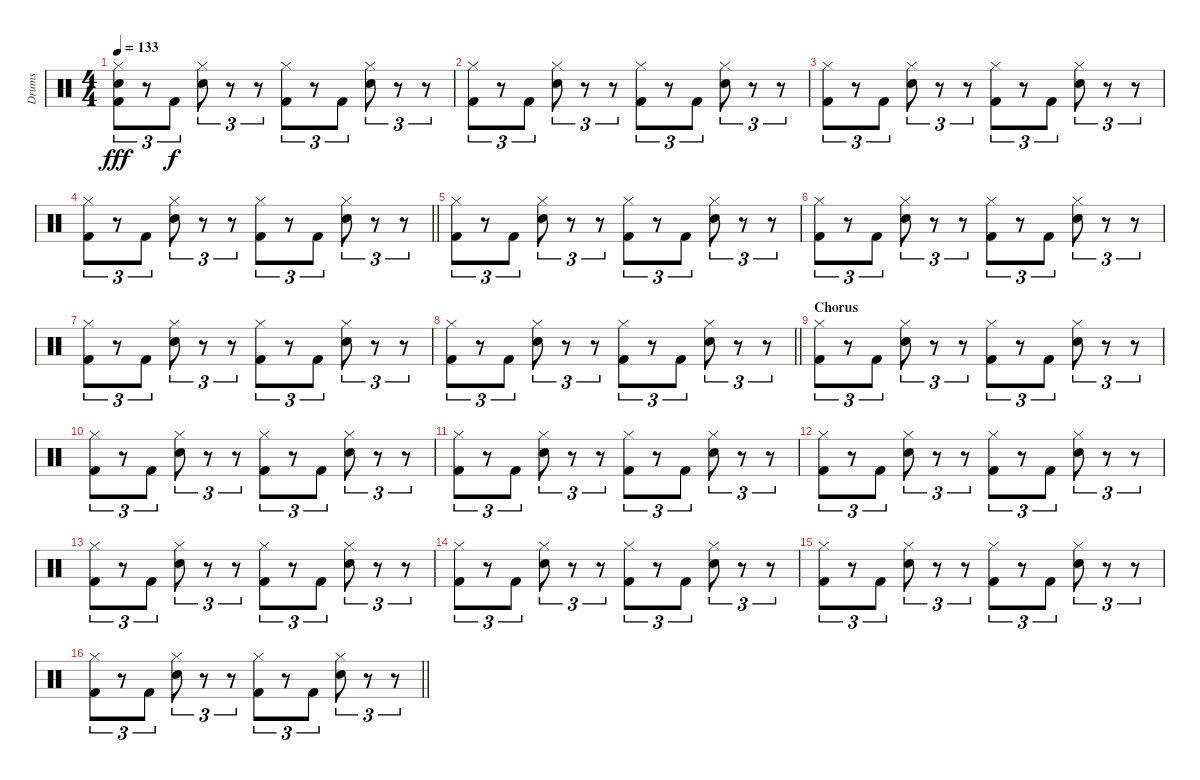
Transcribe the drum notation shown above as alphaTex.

\track ("Drums" "Drums") {instrument percussion}
\staff {score}
\articulation defaults
\ts (4 4)
\tempo 133
\clef neutral
\ks c
("Hi-Hat (closed)" "Hand Clap (hit)" "Kick (hit) 2").8{tu (3 2) dy fff} r.8{tu (3 2)} "Kick (hit) 2".8{tu (3 2) dy f} ("Hi-Hat (closed)" "Snare (hit) 2").8{tu (3 2)} r.8{tu (3 2)} r.8{tu (3 2)} ("Hi-Hat (closed)" "Kick (hit) 2").8{tu (3 2)} r.8{tu (3 2)} "Kick (hit) 2".8{tu (3 2)} ("Hi-Hat (closed)" "Snare (hit) 2").8{tu (3 2)} r.8{tu (3 2)} r.8{tu (3 2)} |
("Hi-Hat (closed)" "Kick (hit) 2").8{tu (3 2)} r.8{tu (3 2)} "Kick (hit) 2".8{tu (3 2)} ("Hi-Hat (closed)" "Snare (hit) 2").8{tu (3 2)} r.8{tu (3 2)} r.8{tu (3 2)} ("Hi-Hat (closed)" "Kick (hit) 2").8{tu (3 2)} r.8{tu (3 2)} "Kick (hit) 2".8{tu (3 2)} ("Hi-Hat (closed)" "Snare (hit) 2").8{tu (3 2)} r.8{tu (3 2)} r.8{tu (3 2)} |
("Hi-Hat (closed)" "Kick (hit) 2").8{tu (3 2)} r.8{tu (3 2)} "Kick (hit) 2".8{tu (3 2)} ("Hi-Hat (closed)" "Snare (hit) 2").8{tu (3 2)} r.8{tu (3 2)} r.8{tu (3 2)} ("Hi-Hat (closed)" "Kick (hit) 2").8{tu (3 2)} r.8{tu (3 2)} "Kick (hit) 2".8{tu (3 2)} ("Hi-Hat (closed)" "Snare (hit) 2").8{tu (3 2)} r.8{tu (3 2)} r.8{tu (3 2)} |
\barLineRight lightlight
("Hi-Hat (closed)" "Kick (hit) 2").8{tu (3 2)} r.8{tu (3 2)} "Kick (hit) 2".8{tu (3 2)} ("Hi-Hat (closed)" "Snare (hit) 2").8{tu (3 2)} r.8{tu (3 2)} r.8{tu (3 2)} ("Hi-Hat (closed)" "Kick (hit) 2").8{tu (3 2)} r.8{tu (3 2)} "Kick (hit) 2".8{tu (3 2)} ("Hi-Hat (closed)" "Snare (hit) 2").8{tu (3 2)} r.8{tu (3 2)} r.8{tu (3 2)} |
("Hi-Hat (closed)" "Kick (hit) 2").8{tu (3 2)} r.8{tu (3 2)} "Kick (hit) 2".8{tu (3 2)} ("Hi-Hat (closed)" "Snare (hit) 2").8{tu (3 2)} r.8{tu (3 2)} r.8{tu (3 2)} ("Hi-Hat (closed)" "Kick (hit) 2").8{tu (3 2)} r.8{tu (3 2)} "Kick (hit) 2".8{tu (3 2)} ("Hi-Hat (closed)" "Snare (hit) 2").8{tu (3 2)} r.8{tu (3 2)} r.8{tu (3 2)} |
("Hi-Hat (closed)" "Kick (hit) 2").8{tu (3 2)} r.8{tu (3 2)} "Kick (hit) 2".8{tu (3 2)} ("Hi-Hat (closed)" "Snare (hit) 2").8{tu (3 2)} r.8{tu (3 2)} r.8{tu (3 2)} ("Hi-Hat (closed)" "Kick (hit) 2").8{tu (3 2)} r.8{tu (3 2)} "Kick (hit) 2".8{tu (3 2)} ("Hi-Hat (closed)" "Snare (hit) 2").8{tu (3 2)} r.8{tu (3 2)} r.8{tu (3 2)} |
("Hi-Hat (closed)" "Kick (hit) 2").8{tu (3 2)} r.8{tu (3 2)} "Kick (hit) 2".8{tu (3 2)} ("Hi-Hat (closed)" "Snare (hit) 2").8{tu (3 2)} r.8{tu (3 2)} r.8{tu (3 2)} ("Hi-Hat (closed)" "Kick (hit) 2").8{tu (3 2)} r.8{tu (3 2)} "Kick (hit) 2".8{tu (3 2)} ("Hi-Hat (closed)" "Snare (hit) 2").8{tu (3 2)} r.8{tu (3 2)} r.8{tu (3 2)} |
\barLineRight lightlight
("Hi-Hat (closed)" "Kick (hit) 2").8{tu (3 2)} r.8{tu (3 2)} "Kick (hit) 2".8{tu (3 2)} ("Hi-Hat (closed)" "Snare (hit) 2").8{tu (3 2)} r.8{tu (3 2)} r.8{tu (3 2)} ("Hi-Hat (closed)" "Kick (hit) 2").8{tu (3 2)} r.8{tu (3 2)} "Kick (hit) 2".8{tu (3 2)} ("Hi-Hat (closed)" "Snare (hit) 2").8{tu (3 2)} r.8{tu (3 2)} r.8{tu (3 2)} |
\section ("" "Chorus")
("Hi-Hat (closed)" "Kick (hit) 2").8{tu (3 2)} r.8{tu (3 2)} "Kick (hit) 2".8{tu (3 2)} ("Hi-Hat (closed)" "Snare (hit) 2").8{tu (3 2)} r.8{tu (3 2)} r.8{tu (3 2)} ("Hi-Hat (closed)" "Kick (hit) 2").8{tu (3 2)} r.8{tu (3 2)} "Kick (hit) 2".8{tu (3 2)} ("Hi-Hat (closed)" "Snare (hit) 2").8{tu (3 2)} r.8{tu (3 2)} r.8{tu (3 2)} |
("Hi-Hat (closed)" "Kick (hit) 2").8{tu (3 2)} r.8{tu (3 2)} "Kick (hit) 2".8{tu (3 2)} ("Hi-Hat (closed)" "Snare (hit) 2").8{tu (3 2)} r.8{tu (3 2)} r.8{tu (3 2)} ("Hi-Hat (closed)" "Kick (hit) 2").8{tu (3 2)} r.8{tu (3 2)} "Kick (hit) 2".8{tu (3 2)} ("Hi-Hat (closed)" "Snare (hit) 2").8{tu (3 2)} r.8{tu (3 2)} r.8{tu (3 2)} |
("Hi-Hat (closed)" "Kick (hit) 2").8{tu (3 2)} r.8{tu (3 2)} "Kick (hit) 2".8{tu (3 2)} ("Hi-Hat (closed)" "Snare (hit) 2").8{tu (3 2)} r.8{tu (3 2)} r.8{tu (3 2)} ("Hi-Hat (closed)" "Kick (hit) 2").8{tu (3 2)} r.8{tu (3 2)} "Kick (hit) 2".8{tu (3 2)} ("Hi-Hat (closed)" "Snare (hit) 2").8{tu (3 2)} r.8{tu (3 2)} r.8{tu (3 2)} |
("Hi-Hat (closed)" "Kick (hit) 2").8{tu (3 2)} r.8{tu (3 2)} "Kick (hit) 2".8{tu (3 2)} ("Hi-Hat (closed)" "Snare (hit) 2").8{tu (3 2)} r.8{tu (3 2)} r.8{tu (3 2)} ("Hi-Hat (closed)" "Kick (hit) 2").8{tu (3 2)} r.8{tu (3 2)} "Kick (hit) 2".8{tu (3 2)} ("Hi-Hat (closed)" "Snare (hit) 2").8{tu (3 2)} r.8{tu (3 2)} r.8{tu (3 2)} |
("Hi-Hat (closed)" "Kick (hit) 2").8{tu (3 2)} r.8{tu (3 2)} "Kick (hit) 2".8{tu (3 2)} ("Hi-Hat (closed)" "Snare (hit) 2").8{tu (3 2)} r.8{tu (3 2)} r.8{tu (3 2)} ("Hi-Hat (closed)" "Kick (hit) 2").8{tu (3 2)} r.8{tu (3 2)} "Kick (hit) 2".8{tu (3 2)} ("Hi-Hat (closed)" "Snare (hit) 2").8{tu (3 2)} r.8{tu (3 2)} r.8{tu (3 2)} |
("Hi-Hat (closed)" "Kick (hit) 2").8{tu (3 2)} r.8{tu (3 2)} "Kick (hit) 2".8{tu (3 2)} ("Hi-Hat (closed)" "Snare (hit) 2").8{tu (3 2)} r.8{tu (3 2)} r.8{tu (3 2)} ("Hi-Hat (closed)" "Kick (hit) 2").8{tu (3 2)} r.8{tu (3 2)} "Kick (hit) 2".8{tu (3 2)} ("Hi-Hat (closed)" "Snare (hit) 2").8{tu (3 2)} r.8{tu (3 2)} r.8{tu (3 2)} |
("Hi-Hat (closed)" "Kick (hit) 2").8{tu (3 2)} r.8{tu (3 2)} "Kick (hit) 2".8{tu (3 2)} ("Hi-Hat (closed)" "Snare (hit) 2").8{tu (3 2)} r.8{tu (3 2)} r.8{tu (3 2)} ("Hi-Hat (closed)" "Kick (hit) 2").8{tu (3 2)} r.8{tu (3 2)} "Kick (hit) 2".8{tu (3 2)} ("Hi-Hat (closed)" "Snare (hit) 2").8{tu (3 2)} r.8{tu (3 2)} r.8{tu (3 2)} |
\barLineRight lightlight
("Hi-Hat (closed)" "Kick (hit) 2").8{tu (3 2)} r.8{tu (3 2)} "Kick (hit) 2".8{tu (3 2)} ("Hi-Hat (closed)" "Snare (hit) 2").8{tu (3 2)} r.8{tu (3 2)} r.8{tu (3 2)} ("Hi-Hat (closed)" "Kick (hit) 2").8{tu (3 2)} r.8{tu (3 2)} "Kick (hit) 2".8{tu (3 2)} ("Hi-Hat (closed)" "Snare (hit) 2").8{tu (3 2)} r.8{tu (3 2)} r.8{tu (3 2)}
